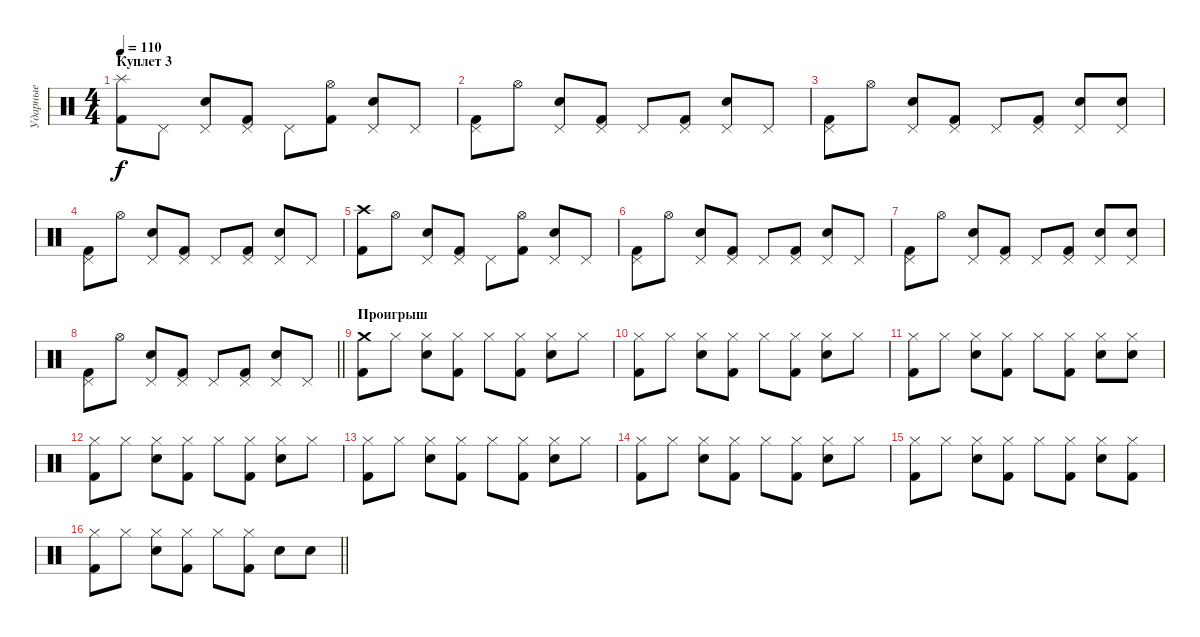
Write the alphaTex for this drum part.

\track ("Ударные" "Ударные") {instrument percussion}
\staff {score}
\articulation defaults
\ts (4 4)
\section ("" "Куплет 3")
\tempo 110
\clef neutral
\ks c
("Splash (hit)" "Kick (hit) 2").8{dy f} "Pedal Hi-Hat (hit)".8 ("Pedal Hi-Hat (hit)" "Electric Snare (hit)").8 ("Pedal Hi-Hat (hit)" "Kick (hit) 2").8 "Pedal Hi-Hat (hit)".8 ("Hi-Hat (open)" "Kick (hit) 2").8 ("Pedal Hi-Hat (hit)" "Electric Snare (hit)").8 "Pedal Hi-Hat (hit)".8 |
("Pedal Hi-Hat (hit)" "Kick (hit) 2").8 "Hi-Hat (open)".8 ("Pedal Hi-Hat (hit)" "Electric Snare (hit)").8 ("Pedal Hi-Hat (hit)" "Kick (hit) 2").8 "Pedal Hi-Hat (hit)".8 ("Pedal Hi-Hat (hit)" "Kick (hit) 2").8 ("Pedal Hi-Hat (hit)" "Electric Snare (hit)").8 "Pedal Hi-Hat (hit)".8 |
("Pedal Hi-Hat (hit)" "Kick (hit) 2").8 "Hi-Hat (open)".8 ("Pedal Hi-Hat (hit)" "Electric Snare (hit)").8 ("Pedal Hi-Hat (hit)" "Kick (hit) 2").8 "Pedal Hi-Hat (hit)".8 ("Pedal Hi-Hat (hit)" "Kick (hit) 2").8 ("Pedal Hi-Hat (hit)" "Electric Snare (hit)").8 ("Pedal Hi-Hat (hit)" "Electric Snare (hit)").8 |
("Pedal Hi-Hat (hit)" "Kick (hit) 2").8 "Hi-Hat (open)".8 ("Pedal Hi-Hat (hit)" "Electric Snare (hit)").8 ("Pedal Hi-Hat (hit)" "Kick (hit) 2").8 "Pedal Hi-Hat (hit)".8 ("Pedal Hi-Hat (hit)" "Kick (hit) 2").8 ("Pedal Hi-Hat (hit)" "Electric Snare (hit)").8 "Pedal Hi-Hat (hit)".8 |
("Crash high (hit)" "Kick (hit) 2").8 "Hi-Hat (open)".8 ("Pedal Hi-Hat (hit)" "Electric Snare (hit)").8 ("Pedal Hi-Hat (hit)" "Kick (hit) 2").8 "Pedal Hi-Hat (hit)".8 ("Hi-Hat (open)" "Kick (hit) 2").8 ("Pedal Hi-Hat (hit)" "Electric Snare (hit)").8 "Pedal Hi-Hat (hit)".8 |
("Pedal Hi-Hat (hit)" "Kick (hit) 2").8 "Hi-Hat (open)".8 ("Pedal Hi-Hat (hit)" "Electric Snare (hit)").8 ("Pedal Hi-Hat (hit)" "Kick (hit) 2").8 "Pedal Hi-Hat (hit)".8 ("Pedal Hi-Hat (hit)" "Kick (hit) 2").8 ("Pedal Hi-Hat (hit)" "Electric Snare (hit)").8 "Pedal Hi-Hat (hit)".8 |
("Pedal Hi-Hat (hit)" "Kick (hit) 2").8 "Hi-Hat (open)".8 ("Pedal Hi-Hat (hit)" "Electric Snare (hit)").8 ("Pedal Hi-Hat (hit)" "Kick (hit) 2").8 "Pedal Hi-Hat (hit)".8 ("Pedal Hi-Hat (hit)" "Kick (hit) 2").8 ("Pedal Hi-Hat (hit)" "Electric Snare (hit)").8 ("Pedal Hi-Hat (hit)" "Electric Snare (hit)").8 |
\barLineRight lightlight
("Pedal Hi-Hat (hit)" "Kick (hit) 2").8 "Hi-Hat (open)".8 ("Pedal Hi-Hat (hit)" "Electric Snare (hit)").8 ("Pedal Hi-Hat (hit)" "Kick (hit) 2").8 "Pedal Hi-Hat (hit)".8 ("Pedal Hi-Hat (hit)" "Kick (hit) 2").8 ("Pedal Hi-Hat (hit)" "Electric Snare (hit)").8 "Pedal Hi-Hat (hit)".8 |
\section ("" "Проигрыш")
("Crash medium (hit)" "Kick (hit) 2").8 "Hi-Hat (closed)".8 ("Hi-Hat (closed)" "Electric Snare (hit)").8 ("Hi-Hat (closed)" "Kick (hit) 2").8 "Hi-Hat (closed)".8 ("Hi-Hat (closed)" "Kick (hit) 2").8 ("Hi-Hat (closed)" "Electric Snare (hit)").8 "Hi-Hat (closed)".8 |
("Hi-Hat (closed)" "Kick (hit) 2").8 "Hi-Hat (closed)".8 ("Hi-Hat (closed)" "Electric Snare (hit)").8 ("Hi-Hat (closed)" "Kick (hit) 2").8 "Hi-Hat (closed)".8 ("Hi-Hat (closed)" "Kick (hit) 2").8 ("Hi-Hat (closed)" "Electric Snare (hit)").8 "Hi-Hat (closed)".8 |
("Hi-Hat (closed)" "Kick (hit) 2").8 "Hi-Hat (closed)".8 ("Hi-Hat (closed)" "Electric Snare (hit)").8 ("Hi-Hat (closed)" "Kick (hit) 2").8 "Hi-Hat (closed)".8 ("Hi-Hat (closed)" "Kick (hit) 2").8 ("Hi-Hat (closed)" "Electric Snare (hit)").8 ("Hi-Hat (closed)" "Electric Snare (hit)").8 |
("Hi-Hat (closed)" "Kick (hit) 2").8 "Hi-Hat (closed)".8 ("Hi-Hat (closed)" "Electric Snare (hit)").8 ("Hi-Hat (closed)" "Kick (hit) 2").8 "Hi-Hat (closed)".8 ("Hi-Hat (closed)" "Kick (hit) 2").8 ("Hi-Hat (closed)" "Electric Snare (hit)").8 "Hi-Hat (closed)".8 |
("Hi-Hat (closed)" "Kick (hit) 2").8 "Hi-Hat (closed)".8 ("Hi-Hat (closed)" "Electric Snare (hit)").8 ("Hi-Hat (closed)" "Kick (hit) 2").8 "Hi-Hat (closed)".8 ("Hi-Hat (closed)" "Kick (hit) 2").8 ("Hi-Hat (closed)" "Electric Snare (hit)").8 "Hi-Hat (closed)".8 |
("Hi-Hat (closed)" "Kick (hit) 2").8 "Hi-Hat (closed)".8 ("Hi-Hat (closed)" "Electric Snare (hit)").8 ("Hi-Hat (closed)" "Kick (hit) 2").8 "Hi-Hat (closed)".8 ("Hi-Hat (closed)" "Kick (hit) 2").8 ("Hi-Hat (closed)" "Electric Snare (hit)").8 "Hi-Hat (closed)".8 |
("Hi-Hat (closed)" "Kick (hit) 2").8 "Hi-Hat (closed)".8 ("Hi-Hat (closed)" "Electric Snare (hit)").8 ("Hi-Hat (closed)" "Kick (hit) 2").8 "Hi-Hat (closed)".8 ("Hi-Hat (closed)" "Kick (hit) 2").8 ("Hi-Hat (closed)" "Electric Snare (hit)").8 ("Hi-Hat (closed)" "Kick (hit) 2").8 |
\barLineRight lightlight
("Hi-Hat (closed)" "Kick (hit) 2").8 "Hi-Hat (closed)".8 ("Hi-Hat (closed)" "Electric Snare (hit)").8 ("Hi-Hat (closed)" "Kick (hit) 2").8 "Hi-Hat (closed)".8 ("Hi-Hat (closed)" "Kick (hit) 2").8 "Electric Snare (hit)".8 "Electric Snare (hit)".8
